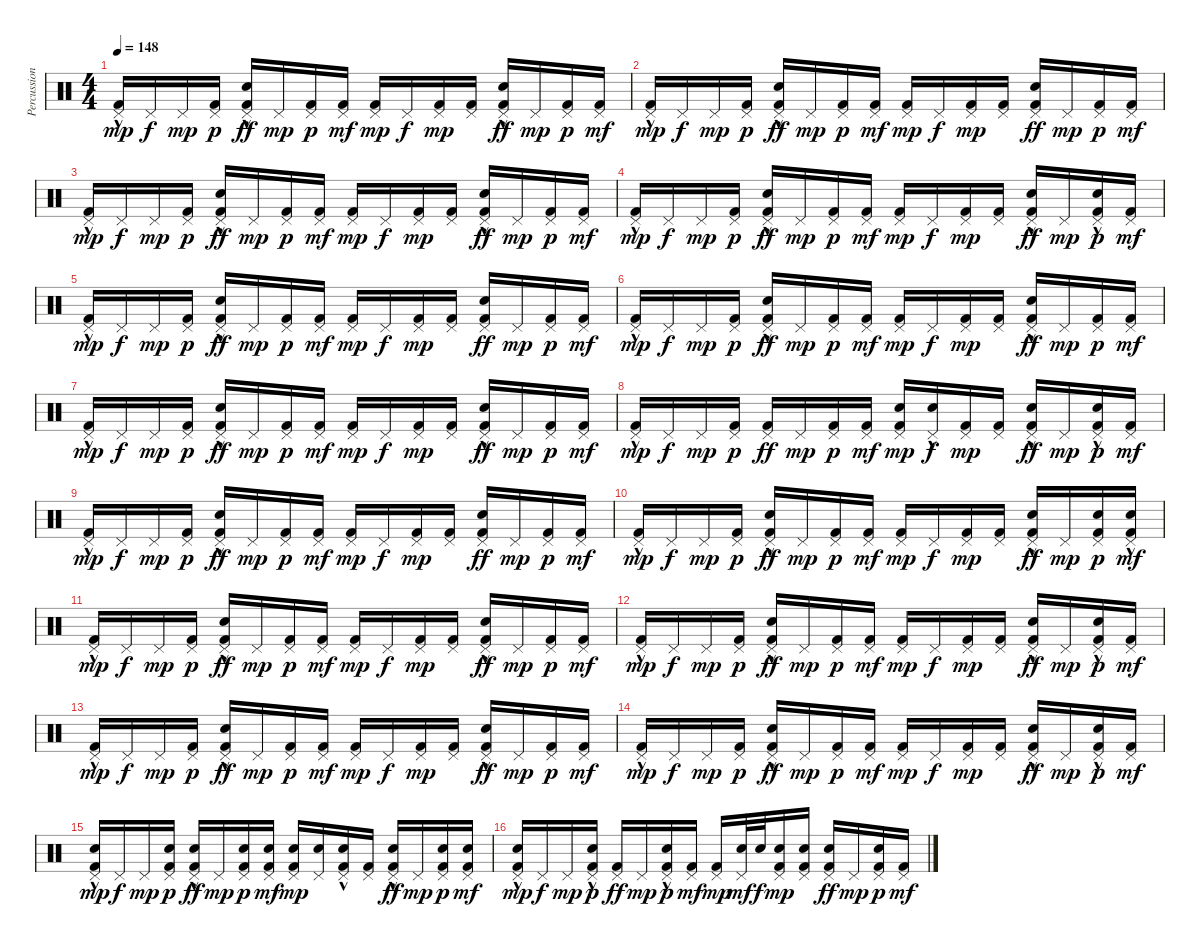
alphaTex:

\track ("Percussion" "Percussion") {instrument percussion}
\staff {score}
\articulation defaults
\ts (4 4)
\tempo 148
\clef neutral
\ks c
("Kick (hit) 2"{hac} "Pedal Hi-Hat (hit)").16{dy mp} "Pedal Hi-Hat (hit)".16{dy f} "Pedal Hi-Hat (hit)".16{dy mp} ("Kick (hit) 2" "Pedal Hi-Hat (hit)").16{dy p} ("Electric Snare (hit)"{hac} "Kick (hit) 2" "Pedal Hi-Hat (hit)").16{dy ff} "Pedal Hi-Hat (hit)".16{dy mp} ("Kick (hit) 2" "Pedal Hi-Hat (hit)").16{dy p} ("Kick (hit) 2" "Pedal Hi-Hat (hit)").16{dy mf} ("Kick (hit) 2" "Pedal Hi-Hat (hit)").16{dy mp} "Pedal Hi-Hat (hit)".16{dy f} ("Kick (hit) 2" "Pedal Hi-Hat (hit)").16{dy mp} ("Kick (hit) 2" "Pedal Hi-Hat (hit)").16 ("Electric Snare (hit)"{hac} "Kick (hit) 2" "Pedal Hi-Hat (hit)").16{dy ff} "Pedal Hi-Hat (hit)".16{dy mp} ("Kick (hit) 2" "Pedal Hi-Hat (hit)").16{dy p} ("Kick (hit) 2" "Pedal Hi-Hat (hit)").16{dy mf} |
("Kick (hit) 2"{hac} "Pedal Hi-Hat (hit)").16{dy mp} "Pedal Hi-Hat (hit)".16{dy f} "Pedal Hi-Hat (hit)".16{dy mp} ("Kick (hit) 2" "Pedal Hi-Hat (hit)").16{dy p} ("Electric Snare (hit)"{hac} "Kick (hit) 2" "Pedal Hi-Hat (hit)").16{dy ff} "Pedal Hi-Hat (hit)".16{dy mp} ("Kick (hit) 2" "Pedal Hi-Hat (hit)").16{dy p} ("Kick (hit) 2" "Pedal Hi-Hat (hit)").16{dy mf} ("Kick (hit) 2" "Pedal Hi-Hat (hit)").16{dy mp} "Pedal Hi-Hat (hit)".16{dy f} ("Kick (hit) 2" "Pedal Hi-Hat (hit)").16{dy mp} ("Kick (hit) 2" "Pedal Hi-Hat (hit)").16 ("Electric Snare (hit)" "Kick (hit) 2" "Pedal Hi-Hat (hit)").16{dy ff} "Pedal Hi-Hat (hit)".16{dy mp} ("Kick (hit) 2" "Pedal Hi-Hat (hit)").16{dy p} ("Kick (hit) 2" "Pedal Hi-Hat (hit)").16{dy mf} |
("Kick (hit) 2"{hac} "Pedal Hi-Hat (hit)").16{dy mp} "Pedal Hi-Hat (hit)".16{dy f} "Pedal Hi-Hat (hit)".16{dy mp} ("Kick (hit) 2" "Pedal Hi-Hat (hit)").16{dy p} ("Electric Snare (hit)"{hac} "Kick (hit) 2" "Pedal Hi-Hat (hit)").16{dy ff} "Pedal Hi-Hat (hit)".16{dy mp} ("Kick (hit) 2" "Pedal Hi-Hat (hit)").16{dy p} ("Kick (hit) 2" "Pedal Hi-Hat (hit)").16{dy mf} ("Kick (hit) 2" "Pedal Hi-Hat (hit)").16{dy mp} "Pedal Hi-Hat (hit)".16{dy f} ("Kick (hit) 2" "Pedal Hi-Hat (hit)").16{dy mp} ("Kick (hit) 2" "Pedal Hi-Hat (hit)").16 ("Electric Snare (hit)"{hac} "Kick (hit) 2" "Pedal Hi-Hat (hit)").16{dy ff} "Pedal Hi-Hat (hit)".16{dy mp} ("Kick (hit) 2" "Pedal Hi-Hat (hit)").16{dy p} ("Kick (hit) 2" "Pedal Hi-Hat (hit)").16{dy mf} |
("Kick (hit) 2"{hac} "Pedal Hi-Hat (hit)").16{dy mp} "Pedal Hi-Hat (hit)".16{dy f} "Pedal Hi-Hat (hit)".16{dy mp} ("Kick (hit) 2" "Pedal Hi-Hat (hit)").16{dy p} ("Electric Snare (hit)"{hac} "Kick (hit) 2" "Pedal Hi-Hat (hit)").16{dy ff} "Pedal Hi-Hat (hit)".16{dy mp} ("Kick (hit) 2" "Pedal Hi-Hat (hit)").16{dy p} ("Kick (hit) 2" "Pedal Hi-Hat (hit)").16{dy mf} ("Kick (hit) 2" "Pedal Hi-Hat (hit)").16{dy mp} "Pedal Hi-Hat (hit)".16{dy f} ("Kick (hit) 2" "Pedal Hi-Hat (hit)").16{dy mp} ("Kick (hit) 2" "Pedal Hi-Hat (hit)").16 ("Electric Snare (hit)"{hac} "Kick (hit) 2" "Pedal Hi-Hat (hit)").16{dy ff} "Pedal Hi-Hat (hit)".16{dy mp} ("Electric Snare (hit)"{hac} "Kick (hit) 2" "Pedal Hi-Hat (hit)").16{dy p} ("Kick (hit) 2" "Pedal Hi-Hat (hit)").16{dy mf} |
("Kick (hit) 2"{hac} "Pedal Hi-Hat (hit)").16{dy mp} "Pedal Hi-Hat (hit)".16{dy f} "Pedal Hi-Hat (hit)".16{dy mp} ("Kick (hit) 2" "Pedal Hi-Hat (hit)").16{dy p} ("Electric Snare (hit)"{hac} "Kick (hit) 2" "Pedal Hi-Hat (hit)").16{dy ff} "Pedal Hi-Hat (hit)".16{dy mp} ("Kick (hit) 2" "Pedal Hi-Hat (hit)").16{dy p} ("Kick (hit) 2" "Pedal Hi-Hat (hit)").16{dy mf} ("Kick (hit) 2" "Pedal Hi-Hat (hit)").16{dy mp} "Pedal Hi-Hat (hit)".16{dy f} ("Kick (hit) 2" "Pedal Hi-Hat (hit)").16{dy mp} ("Kick (hit) 2" "Pedal Hi-Hat (hit)").16 ("Electric Snare (hit)" "Kick (hit) 2" "Pedal Hi-Hat (hit)").16{dy ff} "Pedal Hi-Hat (hit)".16{dy mp} ("Kick (hit) 2" "Pedal Hi-Hat (hit)").16{dy p} ("Kick (hit) 2" "Pedal Hi-Hat (hit)").16{dy mf} |
("Kick (hit) 2"{hac} "Pedal Hi-Hat (hit)").16{dy mp} "Pedal Hi-Hat (hit)".16{dy f} "Pedal Hi-Hat (hit)".16{dy mp} ("Kick (hit) 2" "Pedal Hi-Hat (hit)").16{dy p} ("Electric Snare (hit)"{hac} "Kick (hit) 2" "Pedal Hi-Hat (hit)").16{dy ff} "Pedal Hi-Hat (hit)".16{dy mp} ("Kick (hit) 2" "Pedal Hi-Hat (hit)").16{dy p} ("Kick (hit) 2" "Pedal Hi-Hat (hit)").16{dy mf} ("Kick (hit) 2" "Pedal Hi-Hat (hit)").16{dy mp} "Pedal Hi-Hat (hit)".16{dy f} ("Kick (hit) 2" "Pedal Hi-Hat (hit)").16{dy mp} ("Kick (hit) 2" "Pedal Hi-Hat (hit)").16 ("Electric Snare (hit)"{hac} "Kick (hit) 2" "Pedal Hi-Hat (hit)").16{dy ff} "Pedal Hi-Hat (hit)".16{dy mp} ("Kick (hit) 2" "Pedal Hi-Hat (hit)").16{dy p} ("Kick (hit) 2" "Pedal Hi-Hat (hit)").16{dy mf} |
("Kick (hit) 2"{hac} "Pedal Hi-Hat (hit)").16{dy mp} "Pedal Hi-Hat (hit)".16{dy f} "Pedal Hi-Hat (hit)".16{dy mp} ("Kick (hit) 2" "Pedal Hi-Hat (hit)").16{dy p} ("Electric Snare (hit)"{hac} "Kick (hit) 2" "Pedal Hi-Hat (hit)").16{dy ff} "Pedal Hi-Hat (hit)".16{dy mp} ("Kick (hit) 2" "Pedal Hi-Hat (hit)").16{dy p} ("Kick (hit) 2" "Pedal Hi-Hat (hit)").16{dy mf} ("Kick (hit) 2" "Pedal Hi-Hat (hit)").16{dy mp} "Pedal Hi-Hat (hit)".16{dy f} ("Kick (hit) 2" "Pedal Hi-Hat (hit)").16{dy mp} ("Kick (hit) 2" "Pedal Hi-Hat (hit)").16 ("Electric Snare (hit)"{hac} "Kick (hit) 2" "Pedal Hi-Hat (hit)").16{dy ff} "Pedal Hi-Hat (hit)".16{dy mp} ("Kick (hit) 2" "Pedal Hi-Hat (hit)").16{dy p} ("Kick (hit) 2" "Pedal Hi-Hat (hit)").16{dy mf} |
("Kick (hit) 2"{hac} "Pedal Hi-Hat (hit)").16{dy mp} "Pedal Hi-Hat (hit)".16{dy f} "Pedal Hi-Hat (hit)".16{dy mp} ("Kick (hit) 2" "Pedal Hi-Hat (hit)").16{dy p} ("Kick (hit) 2" "Pedal Hi-Hat (hit)").16{dy ff} "Pedal Hi-Hat (hit)".16{dy mp} ("Kick (hit) 2" "Pedal Hi-Hat (hit)").16{dy p} ("Kick (hit) 2" "Pedal Hi-Hat (hit)").16{dy mf} ("Electric Snare (hit)" "Kick (hit) 2" "Pedal Hi-Hat (hit)").16{dy mp} ("Electric Snare (hit)"{hac} "Pedal Hi-Hat (hit)").16{dy f} ("Kick (hit) 2" "Pedal Hi-Hat (hit)").16{dy mp} ("Kick (hit) 2" "Pedal Hi-Hat (hit)").16 ("Electric Snare (hit)"{hac} "Kick (hit) 2" "Pedal Hi-Hat (hit)").16{dy ff} "Pedal Hi-Hat (hit)".16{dy mp} ("Electric Snare (hit)"{hac} "Kick (hit) 2" "Pedal Hi-Hat (hit)").16{dy p} ("Kick (hit) 2" "Pedal Hi-Hat (hit)").16{dy mf} |
("Kick (hit) 2"{hac} "Pedal Hi-Hat (hit)").16{dy mp} "Pedal Hi-Hat (hit)".16{dy f} "Pedal Hi-Hat (hit)".16{dy mp} ("Kick (hit) 2" "Pedal Hi-Hat (hit)").16{dy p} ("Electric Snare (hit)"{hac} "Kick (hit) 2" "Pedal Hi-Hat (hit)").16{dy ff} "Pedal Hi-Hat (hit)".16{dy mp} ("Kick (hit) 2" "Pedal Hi-Hat (hit)").16{dy p} ("Kick (hit) 2" "Pedal Hi-Hat (hit)").16{dy mf} ("Kick (hit) 2" "Pedal Hi-Hat (hit)").16{dy mp} "Pedal Hi-Hat (hit)".16{dy f} ("Kick (hit) 2" "Pedal Hi-Hat (hit)").16{dy mp} ("Kick (hit) 2" "Pedal Hi-Hat (hit)").16 ("Electric Snare (hit)" "Kick (hit) 2" "Pedal Hi-Hat (hit)").16{dy ff} "Pedal Hi-Hat (hit)".16{dy mp} ("Kick (hit) 2" "Pedal Hi-Hat (hit)").16{dy p} ("Kick (hit) 2" "Pedal Hi-Hat (hit)").16{dy mf} |
("Kick (hit) 2"{hac} "Pedal Hi-Hat (hit)").16{dy mp} "Pedal Hi-Hat (hit)".16{dy f} "Pedal Hi-Hat (hit)".16{dy mp} ("Kick (hit) 2" "Pedal Hi-Hat (hit)").16{dy p} ("Electric Snare (hit)"{hac} "Kick (hit) 2" "Pedal Hi-Hat (hit)").16{dy ff} "Pedal Hi-Hat (hit)".16{dy mp} ("Kick (hit) 2" "Pedal Hi-Hat (hit)").16{dy p} ("Kick (hit) 2" "Pedal Hi-Hat (hit)").16{dy mf} ("Kick (hit) 2" "Pedal Hi-Hat (hit)").16{dy mp} "Pedal Hi-Hat (hit)".16{dy f} ("Kick (hit) 2" "Pedal Hi-Hat (hit)").16{dy mp} ("Kick (hit) 2" "Pedal Hi-Hat (hit)").16 ("Electric Snare (hit)"{hac} "Kick (hit) 2" "Pedal Hi-Hat (hit)").16{dy ff} "Pedal Hi-Hat (hit)".16{dy mp} ("Electric Snare (hit)" "Kick (hit) 2" "Pedal Hi-Hat (hit)").16{dy p} ("Electric Snare (hit)"{hac} "Kick (hit) 2" "Pedal Hi-Hat (hit)").16{dy mf} |
("Kick (hit) 2"{hac} "Pedal Hi-Hat (hit)").16{dy mp} "Pedal Hi-Hat (hit)".16{dy f} "Pedal Hi-Hat (hit)".16{dy mp} ("Kick (hit) 2" "Pedal Hi-Hat (hit)").16{dy p} ("Electric Snare (hit)"{hac} "Kick (hit) 2" "Pedal Hi-Hat (hit)").16{dy ff} "Pedal Hi-Hat (hit)".16{dy mp} ("Kick (hit) 2" "Pedal Hi-Hat (hit)").16{dy p} ("Kick (hit) 2" "Pedal Hi-Hat (hit)").16{dy mf} ("Kick (hit) 2" "Pedal Hi-Hat (hit)").16{dy mp} "Pedal Hi-Hat (hit)".16{dy f} ("Kick (hit) 2" "Pedal Hi-Hat (hit)").16{dy mp} ("Kick (hit) 2" "Pedal Hi-Hat (hit)").16 ("Electric Snare (hit)"{hac} "Kick (hit) 2" "Pedal Hi-Hat (hit)").16{dy ff} "Pedal Hi-Hat (hit)".16{dy mp} ("Kick (hit) 2" "Pedal Hi-Hat (hit)").16{dy p} ("Kick (hit) 2" "Pedal Hi-Hat (hit)").16{dy mf} |
("Kick (hit) 2"{hac} "Pedal Hi-Hat (hit)").16{dy mp} "Pedal Hi-Hat (hit)".16{dy f} "Pedal Hi-Hat (hit)".16{dy mp} ("Kick (hit) 2" "Pedal Hi-Hat (hit)").16{dy p} ("Electric Snare (hit)"{hac} "Kick (hit) 2" "Pedal Hi-Hat (hit)").16{dy ff} "Pedal Hi-Hat (hit)".16{dy mp} ("Kick (hit) 2" "Pedal Hi-Hat (hit)").16{dy p} ("Kick (hit) 2" "Pedal Hi-Hat (hit)").16{dy mf} ("Kick (hit) 2" "Pedal Hi-Hat (hit)").16{dy mp} "Pedal Hi-Hat (hit)".16{dy f} ("Kick (hit) 2" "Pedal Hi-Hat (hit)").16{dy mp} ("Kick (hit) 2" "Pedal Hi-Hat (hit)").16 ("Electric Snare (hit)"{hac} "Kick (hit) 2" "Pedal Hi-Hat (hit)").16{dy ff} "Pedal Hi-Hat (hit)".16{dy mp} ("Electric Snare (hit)"{hac} "Kick (hit) 2" "Pedal Hi-Hat (hit)").16{dy p} ("Kick (hit) 2" "Pedal Hi-Hat (hit)").16{dy mf} |
("Kick (hit) 2"{hac} "Pedal Hi-Hat (hit)").16{dy mp} "Pedal Hi-Hat (hit)".16{dy f} "Pedal Hi-Hat (hit)".16{dy mp} ("Kick (hit) 2" "Pedal Hi-Hat (hit)").16{dy p} ("Electric Snare (hit)"{hac} "Kick (hit) 2" "Pedal Hi-Hat (hit)").16{dy ff} "Pedal Hi-Hat (hit)".16{dy mp} ("Kick (hit) 2" "Pedal Hi-Hat (hit)").16{dy p} ("Kick (hit) 2" "Pedal Hi-Hat (hit)").16{dy mf} ("Kick (hit) 2" "Pedal Hi-Hat (hit)").16{dy mp} "Pedal Hi-Hat (hit)".16{dy f} ("Kick (hit) 2" "Pedal Hi-Hat (hit)").16{dy mp} ("Kick (hit) 2" "Pedal Hi-Hat (hit)").16 ("Electric Snare (hit)"{hac} "Kick (hit) 2" "Pedal Hi-Hat (hit)").16{dy ff} "Pedal Hi-Hat (hit)".16{dy mp} ("Kick (hit) 2" "Pedal Hi-Hat (hit)").16{dy p} ("Kick (hit) 2" "Pedal Hi-Hat (hit)").16{dy mf} |
("Kick (hit) 2"{hac} "Pedal Hi-Hat (hit)").16{dy mp} "Pedal Hi-Hat (hit)".16{dy f} "Pedal Hi-Hat (hit)".16{dy mp} ("Kick (hit) 2" "Pedal Hi-Hat (hit)").16{dy p} ("Electric Snare (hit)"{hac} "Kick (hit) 2" "Pedal Hi-Hat (hit)").16{dy ff} "Pedal Hi-Hat (hit)".16{dy mp} ("Kick (hit) 2" "Pedal Hi-Hat (hit)").16{dy p} ("Kick (hit) 2" "Pedal Hi-Hat (hit)").16{dy mf} ("Kick (hit) 2" "Pedal Hi-Hat (hit)").16{dy mp} "Pedal Hi-Hat (hit)".16{dy f} ("Kick (hit) 2" "Pedal Hi-Hat (hit)").16{dy mp} ("Kick (hit) 2" "Pedal Hi-Hat (hit)").16 ("Electric Snare (hit)"{hac} "Kick (hit) 2" "Pedal Hi-Hat (hit)").16{dy ff} "Pedal Hi-Hat (hit)".16{dy mp} ("Electric Snare (hit)"{hac} "Kick (hit) 2" "Pedal Hi-Hat (hit)").16{dy p} ("Kick (hit) 2" "Pedal Hi-Hat (hit)").16{dy mf} |
("Electric Snare (hit)"{hac} "Kick (hit) 2"{hac} "Pedal Hi-Hat (hit)").16{dy mp} "Pedal Hi-Hat (hit)".16{dy f} "Pedal Hi-Hat (hit)".16{dy mp} ("Electric Snare (hit)" "Kick (hit) 2" "Pedal Hi-Hat (hit)").16{dy p} ("Electric Snare (hit)"{hac} "Kick (hit) 2" "Pedal Hi-Hat (hit)").16{dy ff} "Pedal Hi-Hat (hit)".16{dy mp} ("Electric Snare (hit)" "Kick (hit) 2" "Pedal Hi-Hat (hit)").16{dy p} ("Electric Snare (hit)" "Kick (hit) 2" "Pedal Hi-Hat (hit)").16{dy mf} ("Electric Snare (hit)" "Kick (hit) 2" "Pedal Hi-Hat (hit)").16{dy mp} ("Electric Snare (hit)" "Pedal Hi-Hat (hit)").16 ("Electric Snare (hit)"{hac} "Kick (hit) 2" "Pedal Hi-Hat (hit)").16 ("Kick (hit) 2" "Pedal Hi-Hat (hit)").16 ("Electric Snare (hit)"{hac} "Kick (hit) 2" "Pedal Hi-Hat (hit)").16{dy ff} "Pedal Hi-Hat (hit)".16{dy mp} ("Electric Snare (hit)" "Kick (hit) 2" "Pedal Hi-Hat (hit)").16{dy p} ("Electric Snare (hit)" "Kick (hit) 2" "Pedal Hi-Hat (hit)").16{dy mf} |
("Electric Snare (hit)"{hac} "Kick (hit) 2"{hac} "Pedal Hi-Hat (hit)").16{dy mp} "Pedal Hi-Hat (hit)".16{dy f} "Pedal Hi-Hat (hit)".16{dy mp} ("Electric Snare (hit)"{hac} "Kick (hit) 2" "Pedal Hi-Hat (hit)").16{dy p} ("Kick (hit) 2" "Pedal Hi-Hat (hit)").16{dy ff} "Pedal Hi-Hat (hit)".16{dy mp} ("Electric Snare (hit)"{hac} "Kick (hit) 2" "Pedal Hi-Hat (hit)").16{dy p} ("Kick (hit) 2" "Pedal Hi-Hat (hit)").16{dy mf} ("Kick (hit) 2" "Pedal Hi-Hat (hit)").16{dy mp} ("Electric Snare (hit)" "Pedal Hi-Hat (hit)").32{dy mf} "Electric Snare (hit)".32{dy f} ("Electric Snare (hit)" "Kick (hit) 2" "Pedal Hi-Hat (hit)").16{dy mp} ("Electric Snare (hit)" "Kick (hit) 2" "Pedal Hi-Hat (hit)").16 ("Electric Snare (hit)" "Kick (hit) 2" "Pedal Hi-Hat (hit)").16{dy ff} "Pedal Hi-Hat (hit)".16{dy mp} ("Electric Snare (hit)" "Kick (hit) 2" "Pedal Hi-Hat (hit)").16{dy p} ("Kick (hit) 2" "Pedal Hi-Hat (hit)").16{dy mf}
